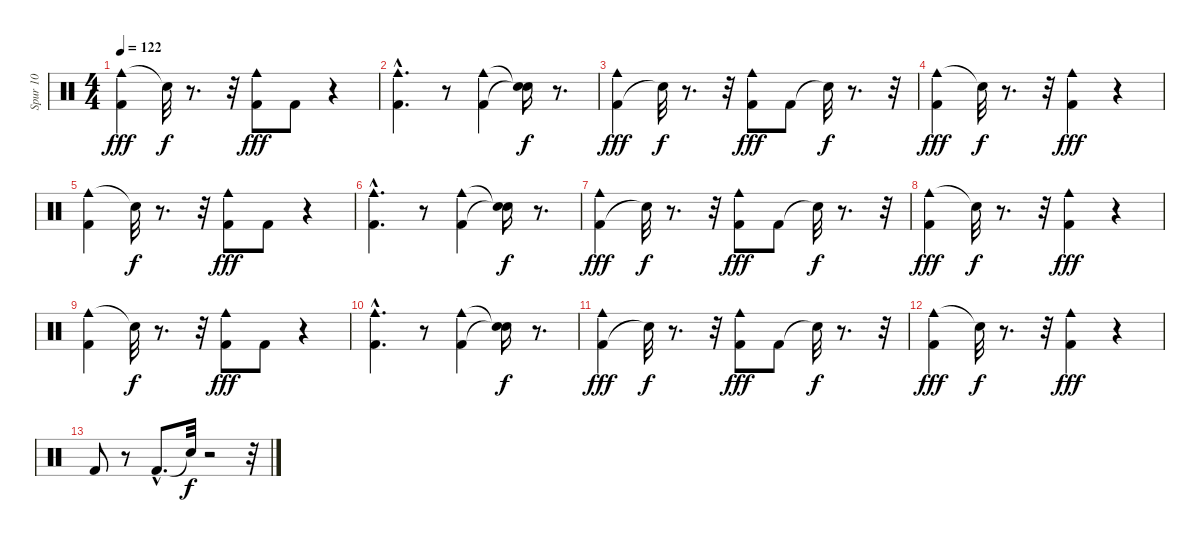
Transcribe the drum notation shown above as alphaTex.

\track ("Spur 10" "Spur 10") {instrument percussion}
\staff {score}
\articulation defaults
\ts (4 4)
\tempo 122
\clef neutral
\ks c
("Cowbell medium (hit)" "Kick (hit) 2").4{dy fff} "Snare (hit)"{t}.32{dy f} r.8{d} r.32 ("Cowbell medium (hit)" "Kick (hit) 2").8{dy fff} "Kick (hit) 2".8 r.4 |
("Cowbell medium (hit)" "Kick (hit) 2"{hac}).4{d} r.8 ("Kick (hit) 2" "Cowbell medium (hit)").4 ("Snare (hit)"{t} "Snare (hit)"{t}).16{dy f} r.8{d} |
("Kick (hit) 2" "Cowbell medium (hit)").4{dy fff} "Snare (hit)"{t}.32{dy f} r.8{d} r.32 ("Kick (hit) 2" "Cowbell medium (hit)").8{dy fff} "Kick (hit) 2".8 "Snare (hit)"{t}.32{dy f} r.8{d} r.32 |
("Cowbell medium (hit)" "Kick (hit) 2").4{dy fff} "Snare (hit)"{t}.32{dy f} r.8{d} r.32 ("Kick (hit) 2" "Cowbell medium (hit)").4{dy fff} r.4 |
("Cowbell medium (hit)" "Kick (hit) 2").4 "Snare (hit)"{t}.32{dy f} r.8{d} r.32 ("Cowbell medium (hit)" "Kick (hit) 2").8{dy fff} "Kick (hit) 2".8 r.4 |
("Cowbell medium (hit)" "Kick (hit) 2"{hac}).4{d} r.8 ("Kick (hit) 2" "Cowbell medium (hit)").4 ("Snare (hit)"{t} "Snare (hit)"{t}).16{dy f} r.8{d} |
("Kick (hit) 2" "Cowbell medium (hit)").4{dy fff} "Snare (hit)"{t}.32{dy f} r.8{d} r.32 ("Kick (hit) 2" "Cowbell medium (hit)").8{dy fff} "Kick (hit) 2".8 "Snare (hit)"{t}.32{dy f} r.8{d} r.32 |
("Cowbell medium (hit)" "Kick (hit) 2").4{dy fff} "Snare (hit)"{t}.32{dy f} r.8{d} r.32 ("Kick (hit) 2" "Cowbell medium (hit)").4{dy fff} r.4 |
("Cowbell medium (hit)" "Kick (hit) 2").4 "Snare (hit)"{t}.32{dy f} r.8{d} r.32 ("Cowbell medium (hit)" "Kick (hit) 2").8{dy fff} "Kick (hit) 2".8 r.4 |
("Cowbell medium (hit)" "Kick (hit) 2"{hac}).4{d} r.8 ("Kick (hit) 2" "Cowbell medium (hit)").4 ("Snare (hit)"{t} "Snare (hit)"{t}).16{dy f} r.8{d} |
("Kick (hit) 2" "Cowbell medium (hit)").4{dy fff} "Snare (hit)"{t}.32{dy f} r.8{d} r.32 ("Kick (hit) 2" "Cowbell medium (hit)").8{dy fff} "Kick (hit) 2".8 "Snare (hit)"{t}.32{dy f} r.8{d} r.32 |
("Cowbell medium (hit)" "Kick (hit) 2").4{dy fff} "Snare (hit)"{t}.32{dy f} r.8{d} r.32 ("Kick (hit) 2" "Cowbell medium (hit)").4{dy fff} r.4 |
"Kick (hit) 2".8 r.8 "Kick (hit) 2"{hac}.8{d} "Snare (hit)"{t}.32{dy f} r.2 r.32
